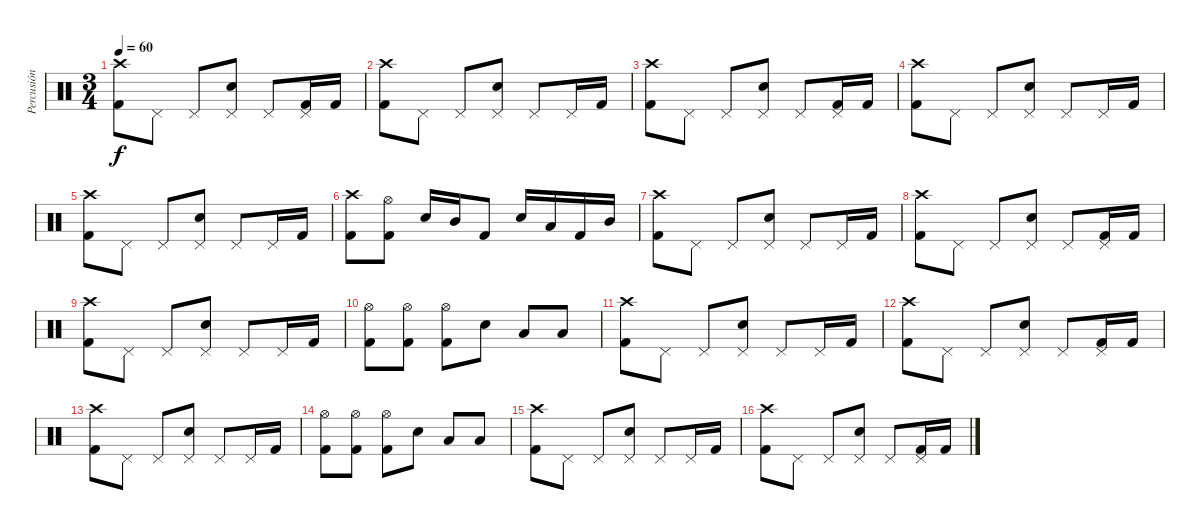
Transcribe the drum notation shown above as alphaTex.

\track ("Percusión" "Percusión") {instrument percussion}
\staff {score}
\articulation defaults
\ts (3 4)
\tempo 60
\clef neutral
\ks c
("Crash high (hit)" "Kick (hit) 2").8{dy f} "Pedal Hi-Hat (hit)".8 "Pedal Hi-Hat (hit)".8 ("Pedal Hi-Hat (hit)" "Snare (hit) 2").8 "Pedal Hi-Hat (hit)".8 ("Pedal Hi-Hat (hit)" "Kick (hit) 2").16 "Kick (hit) 2".16 |
("Kick (hit) 2" "Crash high (hit)").8 "Pedal Hi-Hat (hit)".8 "Pedal Hi-Hat (hit)".8 ("Pedal Hi-Hat (hit)" "Snare (hit) 2").8 "Pedal Hi-Hat (hit)".8 "Pedal Hi-Hat (hit)".16 "Kick (hit) 2".16 |
("Crash high (hit)" "Kick (hit) 2").8 "Pedal Hi-Hat (hit)".8 "Pedal Hi-Hat (hit)".8 ("Pedal Hi-Hat (hit)" "Snare (hit) 2").8 "Pedal Hi-Hat (hit)".8 ("Pedal Hi-Hat (hit)" "Kick (hit) 2").16 "Kick (hit) 2".16 |
("Kick (hit) 2" "Crash high (hit)").8 "Pedal Hi-Hat (hit)".8 "Pedal Hi-Hat (hit)".8 ("Pedal Hi-Hat (hit)" "Snare (hit) 2").8 "Pedal Hi-Hat (hit)".8 "Pedal Hi-Hat (hit)".16 "Kick (hit) 2".16 |
("Kick (hit) 2" "Crash high (hit)").8 "Pedal Hi-Hat (hit)".8 "Pedal Hi-Hat (hit)".8 ("Pedal Hi-Hat (hit)" "Snare (hit) 2").8 "Pedal Hi-Hat (hit)".8 "Pedal Hi-Hat (hit)".16 "Kick (hit) 2".16 |
("Crash high (hit)" "Kick (hit) 2").8 ("Hi-Hat (open)" "Kick (hit) 2").8 "Snare (hit) 2".16 "Mid Tom (hit)".16 "Kick (hit) 2".8 "Snare (hit) 2".16 "Low Tom (hit)".16 "Kick (hit) 2".16 "Mid Tom (hit)".16 |
("Kick (hit) 2" "Crash high (hit)").8 "Pedal Hi-Hat (hit)".8 "Pedal Hi-Hat (hit)".8 ("Pedal Hi-Hat (hit)" "Snare (hit) 2").8 "Pedal Hi-Hat (hit)".8 "Pedal Hi-Hat (hit)".16 "Kick (hit) 2".16 |
("Crash high (hit)" "Kick (hit) 2").8 "Pedal Hi-Hat (hit)".8 "Pedal Hi-Hat (hit)".8 ("Pedal Hi-Hat (hit)" "Snare (hit) 2").8 "Pedal Hi-Hat (hit)".8 ("Pedal Hi-Hat (hit)" "Kick (hit) 2").16 "Kick (hit) 2".16 |
("Kick (hit) 2" "Crash high (hit)").8 "Pedal Hi-Hat (hit)".8 "Pedal Hi-Hat (hit)".8 ("Pedal Hi-Hat (hit)" "Snare (hit) 2").8 "Pedal Hi-Hat (hit)".8 "Pedal Hi-Hat (hit)".16 "Kick (hit) 2".16 |
("Hi-Hat (open)" "Kick (hit) 2").8 ("Hi-Hat (open)" "Kick (hit) 2").8 ("Hi-Hat (open)" "Kick (hit) 2").8 "Snare (hit) 2".8 "Low Tom (hit)".8 "Low Tom (hit)".8 |
("Kick (hit) 2" "Crash high (hit)").8 "Pedal Hi-Hat (hit)".8 "Pedal Hi-Hat (hit)".8 ("Pedal Hi-Hat (hit)" "Snare (hit) 2").8 "Pedal Hi-Hat (hit)".8 "Pedal Hi-Hat (hit)".16 "Kick (hit) 2".16 |
("Crash high (hit)" "Kick (hit) 2").8 "Pedal Hi-Hat (hit)".8 "Pedal Hi-Hat (hit)".8 ("Pedal Hi-Hat (hit)" "Snare (hit) 2").8 "Pedal Hi-Hat (hit)".8 ("Pedal Hi-Hat (hit)" "Kick (hit) 2").16 "Kick (hit) 2".16 |
("Kick (hit) 2" "Crash high (hit)").8 "Pedal Hi-Hat (hit)".8 "Pedal Hi-Hat (hit)".8 ("Pedal Hi-Hat (hit)" "Snare (hit) 2").8 "Pedal Hi-Hat (hit)".8 "Pedal Hi-Hat (hit)".16 "Kick (hit) 2".16 |
("Hi-Hat (open)" "Kick (hit) 2").8 ("Hi-Hat (open)" "Kick (hit) 2").8 ("Hi-Hat (open)" "Kick (hit) 2").8 "Snare (hit) 2".8 "Low Tom (hit)".8 "Low Tom (hit)".8 |
("Kick (hit) 2" "Crash high (hit)").8 "Pedal Hi-Hat (hit)".8 "Pedal Hi-Hat (hit)".8 ("Pedal Hi-Hat (hit)" "Snare (hit) 2").8 "Pedal Hi-Hat (hit)".8 "Pedal Hi-Hat (hit)".16 "Kick (hit) 2".16 |
("Crash high (hit)" "Kick (hit) 2").8 "Pedal Hi-Hat (hit)".8 "Pedal Hi-Hat (hit)".8 ("Pedal Hi-Hat (hit)" "Snare (hit) 2").8 "Pedal Hi-Hat (hit)".8 ("Pedal Hi-Hat (hit)" "Kick (hit) 2").16 "Kick (hit) 2".16
